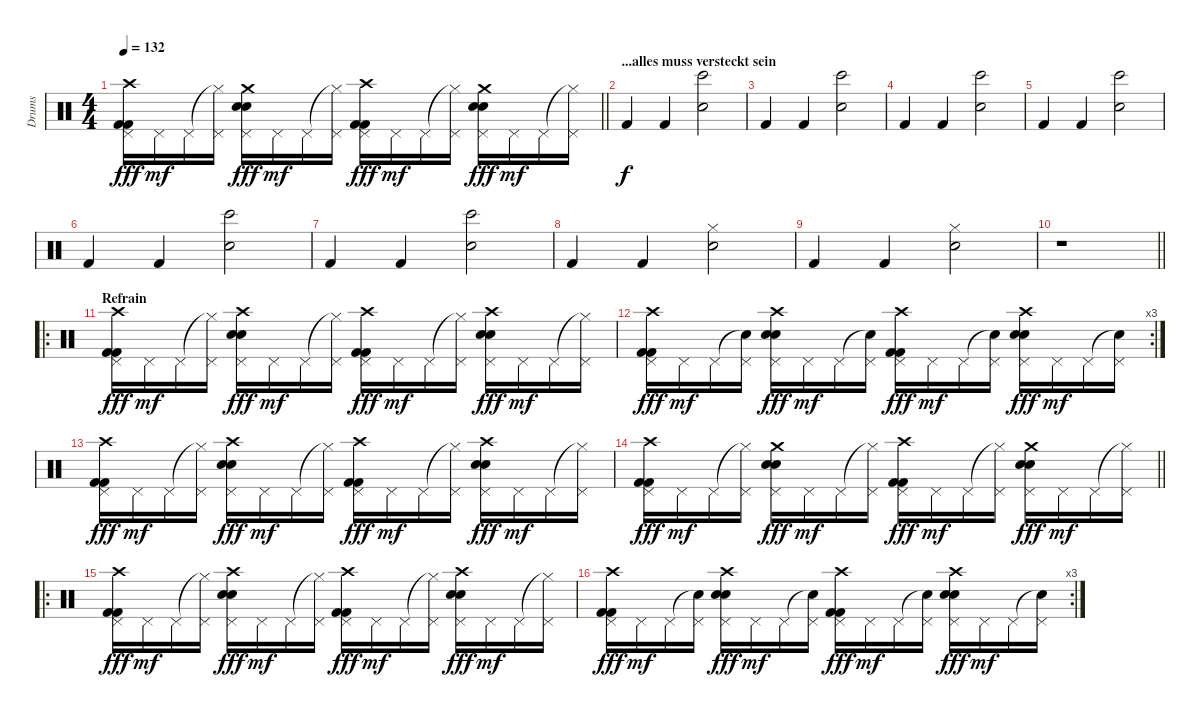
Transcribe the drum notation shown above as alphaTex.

\track ("Drums" "Drums") {instrument percussion}
\staff {score}
\articulation defaults
\ts (4 4)
\tempo 132
\clef neutral
\barLineRight lightlight
\ks c
("Crash high (hit)" "Pedal Hi-Hat (hit)" "Kick (hit) 2" "Kick (hit) 2").16{dy fff} "Pedal Hi-Hat (hit)".16{dy mf} "Pedal Hi-Hat (hit)".16 ("Hi-Hat (closed)"{t} "Pedal Hi-Hat (hit)").16 ("Crash medium (hit)" "Pedal Hi-Hat (hit)" "Electric Snare (hit)" "Electric Snare (hit)").16{dy fff} "Pedal Hi-Hat (hit)".16{dy mf} "Pedal Hi-Hat (hit)".16 ("Hi-Hat (closed)"{t} "Pedal Hi-Hat (hit)").16 ("Crash high (hit)" "Pedal Hi-Hat (hit)" "Kick (hit) 2" "Kick (hit) 2").16{dy fff} "Pedal Hi-Hat (hit)".16{dy mf} "Pedal Hi-Hat (hit)".16 ("Hi-Hat (closed)"{t} "Pedal Hi-Hat (hit)").16 ("Crash medium (hit)" "Pedal Hi-Hat (hit)" "Electric Snare (hit)" "Electric Snare (hit)").16{dy fff} "Pedal Hi-Hat (hit)".16{dy mf} "Pedal Hi-Hat (hit)".16 ("Hi-Hat (closed)"{t} "Pedal Hi-Hat (hit)").16 |
\section ("" "...alles muss versteckt sein")
"Kick (hit) 2".4{dy f} "Kick (hit) 2".4 ("Bongo High (hit)" "Snare (hit) 2").2 |
"Kick (hit) 2".4 "Kick (hit) 2".4 ("Bongo High (hit)" "Snare (hit) 2").2 |
"Kick (hit) 2".4 "Kick (hit) 2".4 ("Bongo High (hit)" "Snare (hit) 2").2 |
"Kick (hit) 2".4 "Kick (hit) 2".4 ("Bongo High (hit)" "Snare (hit) 2").2 |
"Kick (hit) 2".4 "Kick (hit) 2".4 ("Bongo High (hit)" "Snare (hit) 2").2 |
"Kick (hit) 2".4 "Kick (hit) 2".4 ("Bongo High (hit)" "Snare (hit) 2").2 |
"Kick (hit) 2".4 "Kick (hit) 2".4 ("Hi-Hat (closed)" "Snare (hit) 2").2 |
"Kick (hit) 2".4 "Kick (hit) 2".4 ("Hi-Hat (closed)" "Snare (hit) 2").2 |
\barLineRight lightlight
r.1 |
\ro
\section ("" "Refrain")
("Crash high (hit)" "Pedal Hi-Hat (hit)" "Kick (hit) 2" "Kick (hit) 2").16{dy fff} "Pedal Hi-Hat (hit)".16{dy mf} "Pedal Hi-Hat (hit)".16 ("Hi-Hat (closed)"{t} "Pedal Hi-Hat (hit)").16 ("Crash high (hit)" "Pedal Hi-Hat (hit)" "Electric Snare (hit)" "Electric Snare (hit)").16{dy fff} "Pedal Hi-Hat (hit)".16{dy mf} "Pedal Hi-Hat (hit)".16 ("Hi-Hat (closed)"{t} "Pedal Hi-Hat (hit)").16 ("Crash high (hit)" "Pedal Hi-Hat (hit)" "Kick (hit) 2" "Kick (hit) 2").16{dy fff} "Pedal Hi-Hat (hit)".16{dy mf} "Pedal Hi-Hat (hit)".16 ("Hi-Hat (closed)"{t} "Pedal Hi-Hat (hit)").16 ("Crash high (hit)" "Pedal Hi-Hat (hit)" "Electric Snare (hit)" "Electric Snare (hit)").16{dy fff} "Pedal Hi-Hat (hit)".16{dy mf} "Pedal Hi-Hat (hit)".16 ("Hi-Hat (closed)"{t} "Pedal Hi-Hat (hit)").16 |
\rc 3
("Crash high (hit)" "Pedal Hi-Hat (hit)" "Kick (hit) 2" "Kick (hit) 2").16{dy fff} "Pedal Hi-Hat (hit)".16{dy mf} "Pedal Hi-Hat (hit)".16 ("Snare (hit)"{t} "Pedal Hi-Hat (hit)").16 ("Crash high (hit)" "Pedal Hi-Hat (hit)" "Electric Snare (hit)" "Electric Snare (hit)").16{dy fff} "Pedal Hi-Hat (hit)".16{dy mf} "Pedal Hi-Hat (hit)".16 ("Snare (hit)"{t} "Pedal Hi-Hat (hit)").16 ("Crash high (hit)" "Pedal Hi-Hat (hit)" "Kick (hit) 2" "Kick (hit) 2").16{dy fff} "Pedal Hi-Hat (hit)".16{dy mf} "Pedal Hi-Hat (hit)".16 ("Snare (hit)"{t} "Pedal Hi-Hat (hit)").16 ("Crash high (hit)" "Pedal Hi-Hat (hit)" "Electric Snare (hit)" "Electric Snare (hit)").16{dy fff} "Pedal Hi-Hat (hit)".16{dy mf} "Pedal Hi-Hat (hit)".16 ("Snare (hit)"{t} "Pedal Hi-Hat (hit)").16 |
("Crash high (hit)" "Pedal Hi-Hat (hit)" "Kick (hit) 2" "Kick (hit) 2").16{dy fff} "Pedal Hi-Hat (hit)".16{dy mf} "Pedal Hi-Hat (hit)".16 ("Hi-Hat (closed)"{t} "Pedal Hi-Hat (hit)").16 ("Crash high (hit)" "Pedal Hi-Hat (hit)" "Electric Snare (hit)" "Electric Snare (hit)").16{dy fff} "Pedal Hi-Hat (hit)".16{dy mf} "Pedal Hi-Hat (hit)".16 ("Hi-Hat (closed)"{t} "Pedal Hi-Hat (hit)").16 ("Crash high (hit)" "Pedal Hi-Hat (hit)" "Kick (hit) 2" "Kick (hit) 2").16{dy fff} "Pedal Hi-Hat (hit)".16{dy mf} "Pedal Hi-Hat (hit)".16 ("Hi-Hat (closed)"{t} "Pedal Hi-Hat (hit)").16 ("Crash high (hit)" "Pedal Hi-Hat (hit)" "Electric Snare (hit)" "Electric Snare (hit)").16{dy fff} "Pedal Hi-Hat (hit)".16{dy mf} "Pedal Hi-Hat (hit)".16 ("Hi-Hat (closed)"{t} "Pedal Hi-Hat (hit)").16 |
\barLineRight lightlight
("Crash high (hit)" "Pedal Hi-Hat (hit)" "Kick (hit) 2" "Kick (hit) 2").16{dy fff} "Pedal Hi-Hat (hit)".16{dy mf} "Pedal Hi-Hat (hit)".16 ("Hi-Hat (closed)"{t} "Pedal Hi-Hat (hit)").16 ("Crash medium (hit)" "Pedal Hi-Hat (hit)" "Electric Snare (hit)" "Electric Snare (hit)").16{dy fff} "Pedal Hi-Hat (hit)".16{dy mf} "Pedal Hi-Hat (hit)".16 ("Hi-Hat (closed)"{t} "Pedal Hi-Hat (hit)").16 ("Crash high (hit)" "Pedal Hi-Hat (hit)" "Kick (hit) 2" "Kick (hit) 2").16{dy fff} "Pedal Hi-Hat (hit)".16{dy mf} "Pedal Hi-Hat (hit)".16 ("Hi-Hat (closed)"{t} "Pedal Hi-Hat (hit)").16 ("Crash medium (hit)" "Pedal Hi-Hat (hit)" "Electric Snare (hit)" "Electric Snare (hit)").16{dy fff} "Pedal Hi-Hat (hit)".16{dy mf} "Pedal Hi-Hat (hit)".16 ("Hi-Hat (closed)"{t} "Pedal Hi-Hat (hit)").16 |
\ro
("Crash high (hit)" "Pedal Hi-Hat (hit)" "Kick (hit) 2" "Kick (hit) 2").16{dy fff} "Pedal Hi-Hat (hit)".16{dy mf} "Pedal Hi-Hat (hit)".16 ("Hi-Hat (closed)"{t} "Pedal Hi-Hat (hit)").16 ("Crash high (hit)" "Pedal Hi-Hat (hit)" "Electric Snare (hit)" "Electric Snare (hit)").16{dy fff} "Pedal Hi-Hat (hit)".16{dy mf} "Pedal Hi-Hat (hit)".16 ("Hi-Hat (closed)"{t} "Pedal Hi-Hat (hit)").16 ("Crash high (hit)" "Pedal Hi-Hat (hit)" "Kick (hit) 2" "Kick (hit) 2").16{dy fff} "Pedal Hi-Hat (hit)".16{dy mf} "Pedal Hi-Hat (hit)".16 ("Hi-Hat (closed)"{t} "Pedal Hi-Hat (hit)").16 ("Crash high (hit)" "Pedal Hi-Hat (hit)" "Electric Snare (hit)" "Electric Snare (hit)").16{dy fff} "Pedal Hi-Hat (hit)".16{dy mf} "Pedal Hi-Hat (hit)".16 ("Hi-Hat (closed)"{t} "Pedal Hi-Hat (hit)").16 |
\rc 3
("Crash high (hit)" "Pedal Hi-Hat (hit)" "Kick (hit) 2" "Kick (hit) 2").16{dy fff} "Pedal Hi-Hat (hit)".16{dy mf} "Pedal Hi-Hat (hit)".16 ("Snare (hit)"{t} "Pedal Hi-Hat (hit)").16 ("Crash high (hit)" "Pedal Hi-Hat (hit)" "Electric Snare (hit)" "Electric Snare (hit)").16{dy fff} "Pedal Hi-Hat (hit)".16{dy mf} "Pedal Hi-Hat (hit)".16 ("Snare (hit)"{t} "Pedal Hi-Hat (hit)").16 ("Crash high (hit)" "Pedal Hi-Hat (hit)" "Kick (hit) 2" "Kick (hit) 2").16{dy fff} "Pedal Hi-Hat (hit)".16{dy mf} "Pedal Hi-Hat (hit)".16 ("Snare (hit)"{t} "Pedal Hi-Hat (hit)").16 ("Crash high (hit)" "Pedal Hi-Hat (hit)" "Electric Snare (hit)" "Electric Snare (hit)").16{dy fff} "Pedal Hi-Hat (hit)".16{dy mf} "Pedal Hi-Hat (hit)".16 ("Snare (hit)"{t} "Pedal Hi-Hat (hit)").16
